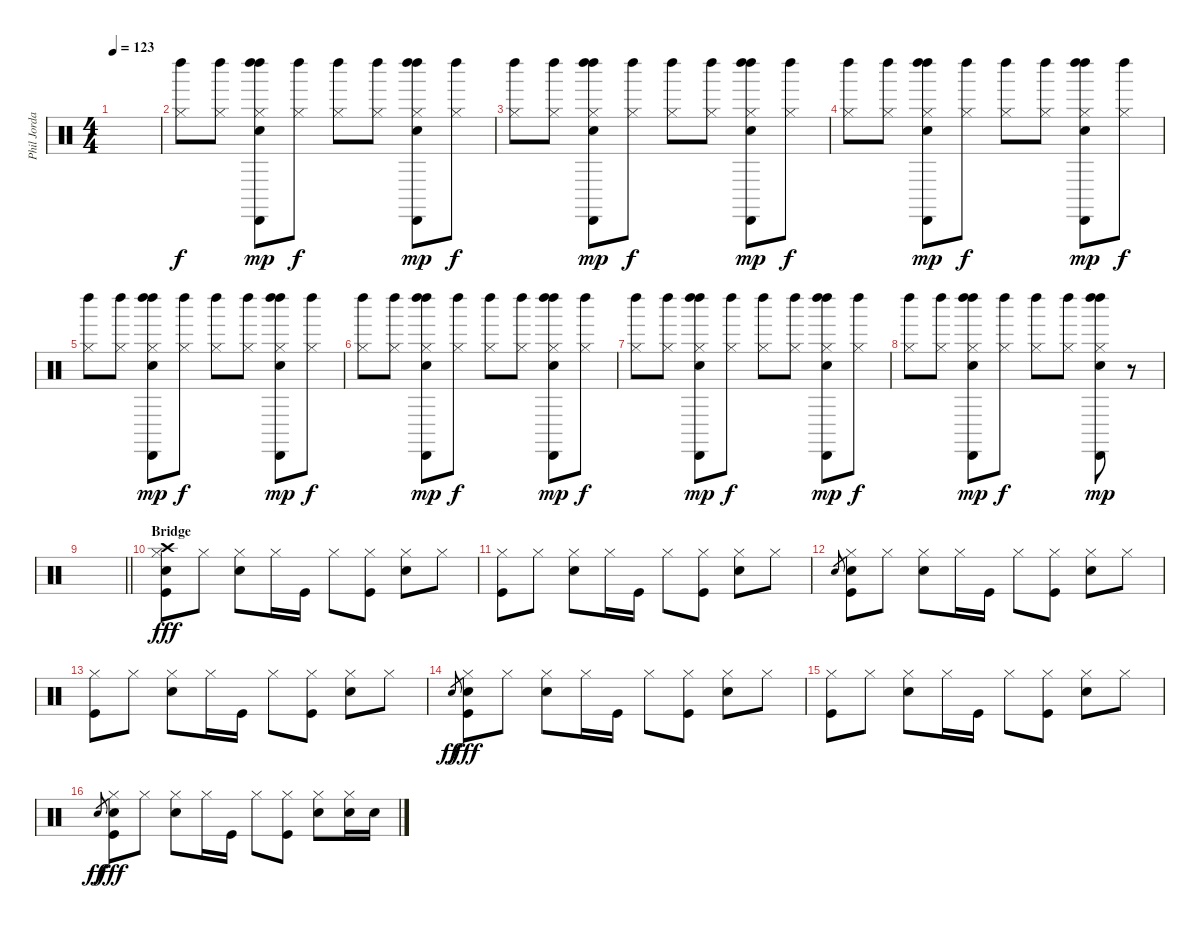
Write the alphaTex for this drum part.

\track ("Phil Jordan" "Phil Jorda") {instrument percussion}
\staff {score}
\articulation defaults
\ts (4 4)
\tempo 123
\clef neutral
\ks c
|
("Left Maraca (hit)" "Hi-Hat (closed)").8{dy f volume 8} ("Left Maraca (hit)" "Hi-Hat (closed)").8 ("Left Maraca (hit)" "Hi-Hat (closed)" "Cabasa (hit)" "Left Maraca (hit)" "Snare (hit) 2").8{dy mp} ("Left Maraca (hit)" "Hi-Hat (closed)").8{dy f} ("Left Maraca (hit)" "Hi-Hat (closed)").8 ("Left Maraca (hit)" "Hi-Hat (closed)").8 ("Left Maraca (hit)" "Hi-Hat (closed)" "Cabasa (hit)" "Left Maraca (hit)" "Snare (hit) 2").8{dy mp} ("Left Maraca (hit)" "Hi-Hat (closed)").8{dy f} |
("Left Maraca (hit)" "Hi-Hat (closed)").8 ("Left Maraca (hit)" "Hi-Hat (closed)").8 ("Left Maraca (hit)" "Hi-Hat (closed)" "Cabasa (hit)" "Left Maraca (hit)" "Snare (hit) 2").8{dy mp} ("Left Maraca (hit)" "Hi-Hat (closed)").8{dy f} ("Left Maraca (hit)" "Hi-Hat (closed)").8 ("Left Maraca (hit)" "Hi-Hat (closed)").8 ("Left Maraca (hit)" "Hi-Hat (closed)" "Cabasa (hit)" "Left Maraca (hit)" "Snare (hit) 2").8{dy mp} ("Left Maraca (hit)" "Hi-Hat (closed)").8{dy f} |
("Left Maraca (hit)" "Hi-Hat (closed)").8 ("Left Maraca (hit)" "Hi-Hat (closed)").8 ("Left Maraca (hit)" "Hi-Hat (closed)" "Cabasa (hit)" "Left Maraca (hit)" "Snare (hit) 2").8{dy mp} ("Left Maraca (hit)" "Hi-Hat (closed)").8{dy f} ("Left Maraca (hit)" "Hi-Hat (closed)").8 ("Left Maraca (hit)" "Hi-Hat (closed)").8 ("Left Maraca (hit)" "Hi-Hat (closed)" "Cabasa (hit)" "Left Maraca (hit)" "Snare (hit) 2").8{dy mp} ("Left Maraca (hit)" "Hi-Hat (closed)").8{dy f} |
("Left Maraca (hit)" "Hi-Hat (closed)").8 ("Left Maraca (hit)" "Hi-Hat (closed)").8 ("Left Maraca (hit)" "Hi-Hat (closed)" "Cabasa (hit)" "Left Maraca (hit)" "Snare (hit) 2").8{dy mp} ("Left Maraca (hit)" "Hi-Hat (closed)").8{dy f} ("Left Maraca (hit)" "Hi-Hat (closed)").8 ("Left Maraca (hit)" "Hi-Hat (closed)").8 ("Left Maraca (hit)" "Hi-Hat (closed)" "Cabasa (hit)" "Left Maraca (hit)" "Snare (hit) 2").8{dy mp} ("Left Maraca (hit)" "Hi-Hat (closed)").8{dy f} |
("Left Maraca (hit)" "Hi-Hat (closed)").8{volume 8} ("Left Maraca (hit)" "Hi-Hat (closed)").8 ("Left Maraca (hit)" "Hi-Hat (closed)" "Cabasa (hit)" "Left Maraca (hit)" "Snare (hit) 2").8{dy mp} ("Left Maraca (hit)" "Hi-Hat (closed)").8{dy f} ("Left Maraca (hit)" "Hi-Hat (closed)").8 ("Left Maraca (hit)" "Hi-Hat (closed)").8 ("Left Maraca (hit)" "Hi-Hat (closed)" "Cabasa (hit)" "Left Maraca (hit)" "Snare (hit) 2").8{dy mp} ("Left Maraca (hit)" "Hi-Hat (closed)").8{dy f} |
("Left Maraca (hit)" "Hi-Hat (closed)").8 ("Left Maraca (hit)" "Hi-Hat (closed)").8 ("Left Maraca (hit)" "Hi-Hat (closed)" "Cabasa (hit)" "Left Maraca (hit)" "Snare (hit) 2").8{dy mp} ("Left Maraca (hit)" "Hi-Hat (closed)").8{dy f} ("Left Maraca (hit)" "Hi-Hat (closed)").8 ("Left Maraca (hit)" "Hi-Hat (closed)").8 ("Left Maraca (hit)" "Hi-Hat (closed)" "Cabasa (hit)" "Left Maraca (hit)" "Snare (hit) 2").8{dy mp} ("Left Maraca (hit)" "Hi-Hat (closed)").8{dy f} |
("Left Maraca (hit)" "Hi-Hat (closed)").8 ("Left Maraca (hit)" "Hi-Hat (closed)").8 ("Left Maraca (hit)" "Hi-Hat (closed)" "Cabasa (hit)" "Left Maraca (hit)" "Snare (hit) 2").8{dy mp} ("Left Maraca (hit)" "Hi-Hat (closed)").8{dy f} ("Left Maraca (hit)" "Hi-Hat (closed)").8 ("Left Maraca (hit)" "Hi-Hat (closed)").8 ("Left Maraca (hit)" "Hi-Hat (closed)" "Cabasa (hit)" "Left Maraca (hit)" "Snare (hit) 2").8{dy mp} r.8 |
\barLineRight lightlight
|
\section ("" "Bridge")
("Crash high (hit)" "Hi-Hat (closed)" "Snare (hit) 2" "Kick (hit)").8{dy fff volume 14} "Hi-Hat (closed)".8 ("Hi-Hat (closed)" "Snare (hit) 2").8 "Hi-Hat (closed)".16 "Kick (hit)".16 "Hi-Hat (closed)".8 ("Hi-Hat (closed)" "Kick (hit)").8 ("Hi-Hat (closed)" "Snare (hit) 2").8 "Hi-Hat (closed)".8 |
("Hi-Hat (closed)" "Kick (hit)").8 "Hi-Hat (closed)".8 ("Hi-Hat (closed)" "Snare (hit) 2").8 "Hi-Hat (closed)".16 "Kick (hit)".16 "Hi-Hat (closed)".8 ("Hi-Hat (closed)" "Kick (hit)").8 ("Hi-Hat (closed)" "Snare (hit) 2").8 "Hi-Hat (closed)".8 |
"Snare (hit) 2".8{gr} ("Hi-Hat (closed)" "Snare (hit) 2" "Kick (hit)").8 "Hi-Hat (closed)".8 ("Hi-Hat (closed)" "Snare (hit) 2").8 "Hi-Hat (closed)".16 "Kick (hit)".16 "Hi-Hat (closed)".8 ("Hi-Hat (closed)" "Kick (hit)").8 ("Hi-Hat (closed)" "Snare (hit) 2").8 "Hi-Hat (closed)".8 |
("Hi-Hat (closed)" "Kick (hit)").8 "Hi-Hat (closed)".8 ("Hi-Hat (closed)" "Snare (hit) 2").8 "Hi-Hat (closed)".16 "Kick (hit)".16 "Hi-Hat (closed)".8 ("Hi-Hat (closed)" "Kick (hit)").8 ("Hi-Hat (closed)" "Snare (hit) 2").8 "Hi-Hat (closed)".8 |
"Snare (hit) 2".8{gr dy ff} ("Hi-Hat (closed)" "Snare (hit) 2" "Kick (hit)").8{dy fff} "Hi-Hat (closed)".8 ("Hi-Hat (closed)" "Snare (hit) 2").8 "Hi-Hat (closed)".16 "Kick (hit)".16 "Hi-Hat (closed)".8 ("Hi-Hat (closed)" "Kick (hit)").8 ("Hi-Hat (closed)" "Snare (hit) 2").8 "Hi-Hat (closed)".8 |
("Hi-Hat (closed)" "Kick (hit)").8 "Hi-Hat (closed)".8 ("Hi-Hat (closed)" "Snare (hit) 2").8 "Hi-Hat (closed)".16 "Kick (hit)".16 "Hi-Hat (closed)".8 ("Hi-Hat (closed)" "Kick (hit)").8 ("Hi-Hat (closed)" "Snare (hit) 2").8 "Hi-Hat (closed)".8 |
"Snare (hit) 2".8{gr dy ff} ("Hi-Hat (closed)" "Snare (hit) 2" "Kick (hit)").8{dy fff} "Hi-Hat (closed)".8 ("Hi-Hat (closed)" "Snare (hit) 2").8 "Hi-Hat (closed)".16 "Kick (hit)".16 "Hi-Hat (closed)".8 ("Hi-Hat (closed)" "Kick (hit)").8 ("Hi-Hat (closed)" "Snare (hit) 2").8 ("Hi-Hat (closed)" "Snare (hit) 2").16 "Snare (hit) 2".16
